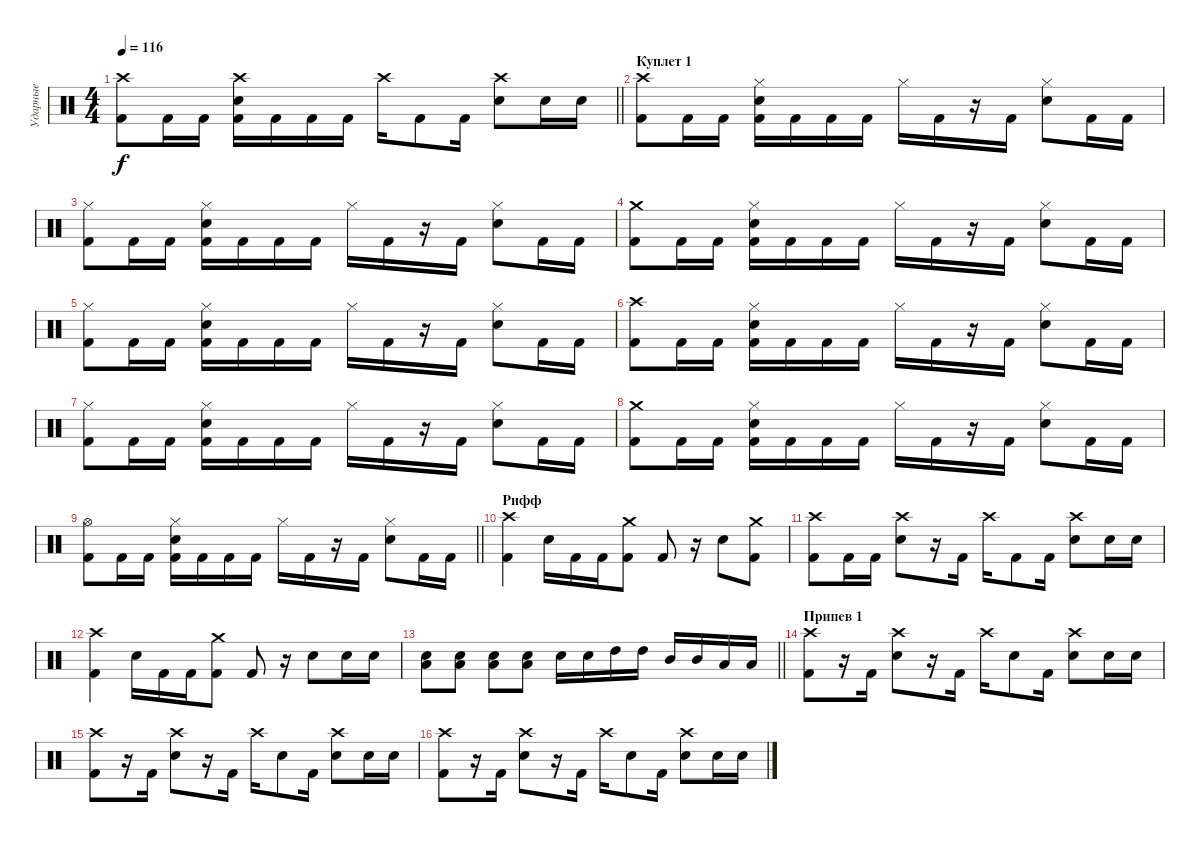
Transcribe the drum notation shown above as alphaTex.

\track ("Ударные" "Ударные") {instrument percussion}
\staff {score}
\articulation defaults
\ts (4 4)
\tempo 116
\clef neutral
\barLineRight lightlight
\ks c
("Crash high (hit)" "Kick (hit) 2").8{dy f} "Kick (hit) 2".16 "Kick (hit) 2".16 ("Crash high (hit)" "Snare (hit) 2" "Kick (hit) 2").16 "Kick (hit) 2".16 "Kick (hit) 2".16 "Kick (hit) 2".16 "Crash high (hit)".16 "Kick (hit) 2".8 "Kick (hit) 2".16 ("Crash high (hit)" "Snare (hit) 2").8 "Snare (hit) 2".16 "Snare (hit) 2".16 |
\section ("" "Куплет 1")
("Crash high (hit)" "Kick (hit) 2").8 "Kick (hit) 2".16 "Kick (hit) 2".16 ("Hi-Hat (closed)" "Snare (hit) 2" "Kick (hit) 2").16 "Kick (hit) 2".16 "Kick (hit) 2".16 "Kick (hit) 2".16 "Hi-Hat (closed)".16 "Kick (hit) 2".16 r.16 "Kick (hit) 2".16 ("Hi-Hat (closed)" "Snare (hit) 2").8 "Kick (hit) 2".16 "Kick (hit) 2".16 |
("Hi-Hat (closed)" "Kick (hit) 2").8 "Kick (hit) 2".16 "Kick (hit) 2".16 ("Hi-Hat (closed)" "Snare (hit) 2" "Kick (hit) 2").16 "Kick (hit) 2".16 "Kick (hit) 2".16 "Kick (hit) 2".16 "Hi-Hat (closed)".16 "Kick (hit) 2".16 r.16 "Kick (hit) 2".16 ("Hi-Hat (closed)" "Snare (hit) 2").8 "Kick (hit) 2".16 "Kick (hit) 2".16 |
("Crash medium (hit)" "Kick (hit) 2").8 "Kick (hit) 2".16 "Kick (hit) 2".16 ("Hi-Hat (closed)" "Snare (hit) 2" "Kick (hit) 2").16 "Kick (hit) 2".16 "Kick (hit) 2".16 "Kick (hit) 2".16 "Hi-Hat (closed)".16 "Kick (hit) 2".16 r.16 "Kick (hit) 2".16 ("Hi-Hat (closed)" "Snare (hit) 2").8 "Kick (hit) 2".16 "Kick (hit) 2".16 |
("Hi-Hat (closed)" "Kick (hit) 2").8 "Kick (hit) 2".16 "Kick (hit) 2".16 ("Hi-Hat (closed)" "Snare (hit) 2" "Kick (hit) 2").16 "Kick (hit) 2".16 "Kick (hit) 2".16 "Kick (hit) 2".16 "Hi-Hat (closed)".16 "Kick (hit) 2".16 r.16 "Kick (hit) 2".16 ("Hi-Hat (closed)" "Snare (hit) 2").8 "Kick (hit) 2".16 "Kick (hit) 2".16 |
("Crash high (hit)" "Kick (hit) 2").8 "Kick (hit) 2".16 "Kick (hit) 2".16 ("Hi-Hat (closed)" "Snare (hit) 2" "Kick (hit) 2").16 "Kick (hit) 2".16 "Kick (hit) 2".16 "Kick (hit) 2".16 "Hi-Hat (closed)".16 "Kick (hit) 2".16 r.16 "Kick (hit) 2".16 ("Hi-Hat (closed)" "Snare (hit) 2").8 "Kick (hit) 2".16 "Kick (hit) 2".16 |
("Hi-Hat (closed)" "Kick (hit) 2").8 "Kick (hit) 2".16 "Kick (hit) 2".16 ("Hi-Hat (closed)" "Snare (hit) 2" "Kick (hit) 2").16 "Kick (hit) 2".16 "Kick (hit) 2".16 "Kick (hit) 2".16 "Hi-Hat (closed)".16 "Kick (hit) 2".16 r.16 "Kick (hit) 2".16 ("Hi-Hat (closed)" "Snare (hit) 2").8 "Kick (hit) 2".16 "Kick (hit) 2".16 |
("Crash medium (hit)" "Kick (hit) 2").8 "Kick (hit) 2".16 "Kick (hit) 2".16 ("Hi-Hat (closed)" "Snare (hit) 2" "Kick (hit) 2").16 "Kick (hit) 2".16 "Kick (hit) 2".16 "Kick (hit) 2".16 "Hi-Hat (closed)".16 "Kick (hit) 2".16 r.16 "Kick (hit) 2".16 ("Hi-Hat (closed)" "Snare (hit) 2").8 "Kick (hit) 2".16 "Kick (hit) 2".16 |
\barLineRight lightlight
("Hi-Hat (open)" "Kick (hit) 2").8 "Kick (hit) 2".16 "Kick (hit) 2".16 ("Hi-Hat (closed)" "Snare (hit) 2" "Kick (hit) 2").16 "Kick (hit) 2".16 "Kick (hit) 2".16 "Kick (hit) 2".16 "Hi-Hat (closed)".16 "Kick (hit) 2".16 r.16 "Kick (hit) 2".16 ("Hi-Hat (closed)" "Snare (hit) 2").8 "Kick (hit) 2".16 "Kick (hit) 2".16 |
\section ("" "Рифф")
("Crash high (hit)" "Kick (hit) 2").4 "Snare (hit) 2".16 "Kick (hit) 2".16 "Kick (hit) 2".16 ("Crash medium (hit)" "Kick (hit) 2").8 "Kick (hit) 2".8 r.16 "Snare (hit) 2".8 ("Crash medium (hit)" "Kick (hit) 2").8 |
("Crash high (hit)" "Kick (hit) 2").8 "Kick (hit) 2".16 "Kick (hit) 2".16 ("Crash high (hit)" "Snare (hit) 2").8 r.16 "Kick (hit) 2".16 "Crash high (hit)".16 "Kick (hit) 2".8 "Kick (hit) 2".16 ("Crash high (hit)" "Snare (hit) 2").8 "Snare (hit) 2".16 "Snare (hit) 2".16 |
("Crash high (hit)" "Kick (hit) 2").4 "Snare (hit) 2".16 "Kick (hit) 2".16 "Kick (hit) 2".16 ("Crash medium (hit)" "Kick (hit) 2").8 "Kick (hit) 2".8 r.16 "Snare (hit) 2".8 "Snare (hit) 2".16 "Snare (hit) 2".16 |
\barLineRight lightlight
("Low Tom (hit)" "Snare (hit) 2").8 ("Low Tom (hit)" "Snare (hit) 2").8 ("Low Tom (hit)" "Snare (hit) 2").8 ("Low Tom (hit)" "Snare (hit) 2").8 "Snare (hit) 2".16 "Snare (hit) 2".16 "High Tom (hit)".16 "High Tom (hit)".16 "Mid Tom (hit)".16 "Mid Tom (hit)".16 "Low Tom (hit)".16 "Low Tom (hit)".16 |
\section ("" "Припев 1")
("Crash high (hit)" "Kick (hit) 2").8 r.16 "Kick (hit) 2".16 ("Crash high (hit)" "Snare (hit) 2").8 r.16 "Kick (hit) 2".16 "Crash high (hit)".16 "Snare (hit) 2".8 "Kick (hit) 2".16 ("Crash high (hit)" "Snare (hit) 2").8 "Snare (hit) 2".16 "Snare (hit) 2".16 |
("Crash high (hit)" "Kick (hit) 2").8 r.16 "Kick (hit) 2".16 ("Crash high (hit)" "Snare (hit) 2").8 r.16 "Kick (hit) 2".16 "Crash high (hit)".16 "Snare (hit) 2".8 "Kick (hit) 2".16 ("Crash high (hit)" "Snare (hit) 2").8 "Snare (hit) 2".16 "Snare (hit) 2".16 |
("Crash high (hit)" "Kick (hit) 2").8 r.16 "Kick (hit) 2".16 ("Crash high (hit)" "Snare (hit) 2").8 r.16 "Kick (hit) 2".16 "Crash high (hit)".16 "Snare (hit) 2".8 "Kick (hit) 2".16 ("Crash high (hit)" "Snare (hit) 2").8 "Snare (hit) 2".16 "Snare (hit) 2".16
